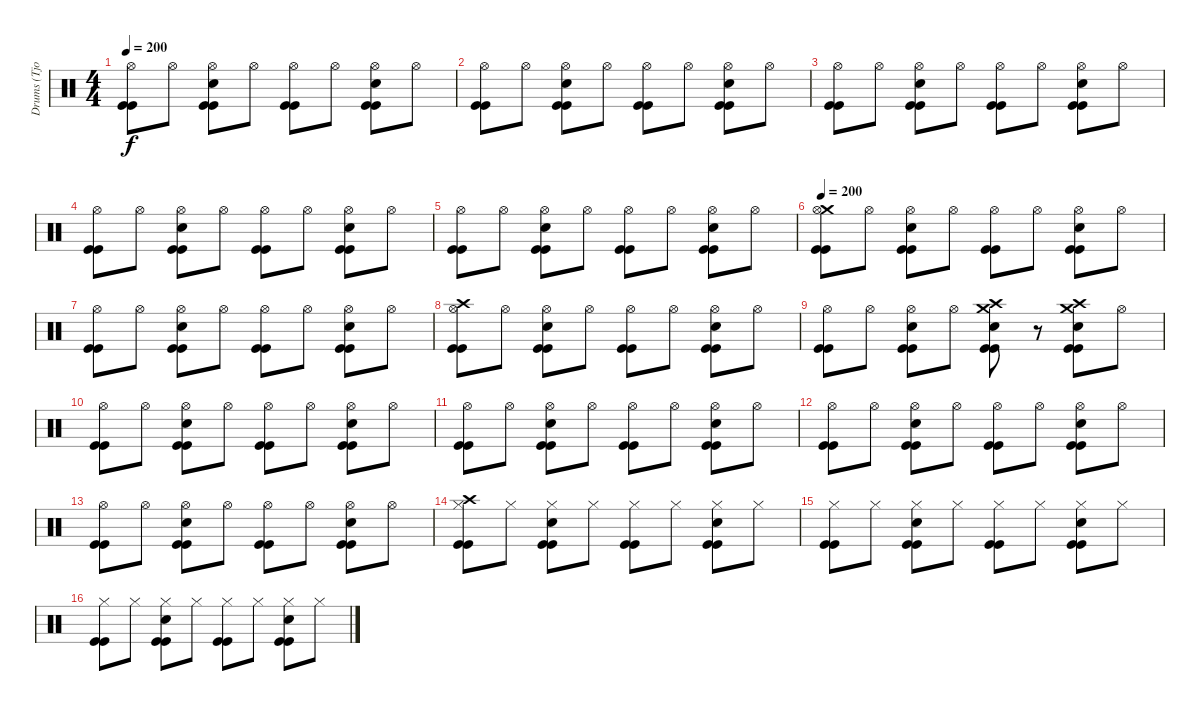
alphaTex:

\track ("Drums (Tjodalv)" "Drums (Tjo") {instrument percussion}
\staff {score}
\articulation defaults
\ts (4 4)
\tempo 200
\clef neutral
\ks c
("Hi-Hat (open)" "Kick (hit)" "Kick (hit)").8{dy f} "Hi-Hat (open)".8 ("Snare (hit) 2" "Hi-Hat (open)" "Kick (hit)" "Kick (hit)").8 "Hi-Hat (open)".8 ("Hi-Hat (open)" "Kick (hit)" "Kick (hit)").8 "Hi-Hat (open)".8 ("Snare (hit) 2" "Hi-Hat (open)" "Kick (hit)" "Kick (hit)").8 "Hi-Hat (open)".8 |
("Hi-Hat (open)" "Kick (hit)" "Kick (hit)").8 "Hi-Hat (open)".8 ("Snare (hit) 2" "Hi-Hat (open)" "Kick (hit)" "Kick (hit)").8 "Hi-Hat (open)".8 ("Hi-Hat (open)" "Kick (hit)" "Kick (hit)").8 "Hi-Hat (open)".8 ("Snare (hit) 2" "Hi-Hat (open)" "Kick (hit)" "Kick (hit)").8 "Hi-Hat (open)".8 |
("Hi-Hat (open)" "Kick (hit)" "Kick (hit)").8 "Hi-Hat (open)".8 ("Snare (hit) 2" "Hi-Hat (open)" "Kick (hit)" "Kick (hit)").8 "Hi-Hat (open)".8 ("Hi-Hat (open)" "Kick (hit)" "Kick (hit)").8 "Hi-Hat (open)".8 ("Snare (hit) 2" "Hi-Hat (open)" "Kick (hit)" "Kick (hit)").8 "Hi-Hat (open)".8 |
("Hi-Hat (open)" "Kick (hit)" "Kick (hit)").8 "Hi-Hat (open)".8 ("Snare (hit) 2" "Hi-Hat (open)" "Kick (hit)" "Kick (hit)").8 "Hi-Hat (open)".8 ("Hi-Hat (open)" "Kick (hit)" "Kick (hit)").8 "Hi-Hat (open)".8 ("Snare (hit) 2" "Hi-Hat (open)" "Kick (hit)" "Kick (hit)").8 "Hi-Hat (open)".8 |
("Hi-Hat (open)" "Kick (hit)" "Kick (hit)").8 "Hi-Hat (open)".8 ("Snare (hit) 2" "Hi-Hat (open)" "Kick (hit)" "Kick (hit)").8 "Hi-Hat (open)".8 ("Hi-Hat (open)" "Kick (hit)" "Kick (hit)").8 "Hi-Hat (open)".8 ("Snare (hit) 2" "Hi-Hat (open)" "Kick (hit)" "Kick (hit)").8 "Hi-Hat (open)".8 |
\tempo 200
("Crash medium (hit)" "Hi-Hat (open)" "Kick (hit)" "Kick (hit)").8 "Hi-Hat (open)".8 ("Snare (hit) 2" "Hi-Hat (open)" "Kick (hit)" "Kick (hit)").8 "Hi-Hat (open)".8 ("Hi-Hat (open)" "Kick (hit)" "Kick (hit)").8 "Hi-Hat (open)".8 ("Snare (hit) 2" "Hi-Hat (open)" "Kick (hit)" "Kick (hit)").8 "Hi-Hat (open)".8 |
("Hi-Hat (open)" "Kick (hit)" "Kick (hit)").8 "Hi-Hat (open)".8 ("Snare (hit) 2" "Hi-Hat (open)" "Kick (hit)" "Kick (hit)").8 "Hi-Hat (open)".8 ("Hi-Hat (open)" "Kick (hit)" "Kick (hit)").8 "Hi-Hat (open)".8 ("Snare (hit) 2" "Hi-Hat (open)" "Kick (hit)" "Kick (hit)").8 "Hi-Hat (open)".8 |
("Crash high (hit)" "Hi-Hat (open)" "Kick (hit)" "Kick (hit)").8 "Hi-Hat (open)".8 ("Snare (hit) 2" "Hi-Hat (open)" "Kick (hit)" "Kick (hit)").8 "Hi-Hat (open)".8 ("Hi-Hat (open)" "Kick (hit)" "Kick (hit)").8 "Hi-Hat (open)".8 ("Snare (hit) 2" "Hi-Hat (open)" "Kick (hit)" "Kick (hit)").8 "Hi-Hat (open)".8 |
("Hi-Hat (open)" "Kick (hit)" "Kick (hit)").8 "Hi-Hat (open)".8 ("Snare (hit) 2" "Hi-Hat (open)" "Kick (hit)" "Kick (hit)").8 "Hi-Hat (open)".8 ("Crash medium (hit)" "Crash high (hit)" "Snare (hit) 2" "Kick (hit)" "Kick (hit)").8 r.8 ("Crash medium (hit)" "Crash high (hit)" "Snare (hit) 2" "Kick (hit)" "Kick (hit)").8 "Hi-Hat (open)".8 |
("Hi-Hat (open)" "Kick (hit)" "Kick (hit)").8 "Hi-Hat (open)".8 ("Snare (hit) 2" "Hi-Hat (open)" "Kick (hit)" "Kick (hit)").8 "Hi-Hat (open)".8 ("Hi-Hat (open)" "Kick (hit)" "Kick (hit)").8 "Hi-Hat (open)".8 ("Snare (hit) 2" "Hi-Hat (open)" "Kick (hit)" "Kick (hit)").8 "Hi-Hat (open)".8 |
("Hi-Hat (open)" "Kick (hit)" "Kick (hit)").8 "Hi-Hat (open)".8 ("Snare (hit) 2" "Hi-Hat (open)" "Kick (hit)" "Kick (hit)").8 "Hi-Hat (open)".8 ("Hi-Hat (open)" "Kick (hit)" "Kick (hit)").8 "Hi-Hat (open)".8 ("Snare (hit) 2" "Hi-Hat (open)" "Kick (hit)" "Kick (hit)").8 "Hi-Hat (open)".8 |
("Hi-Hat (open)" "Kick (hit)" "Kick (hit)").8 "Hi-Hat (open)".8 ("Snare (hit) 2" "Hi-Hat (open)" "Kick (hit)" "Kick (hit)").8 "Hi-Hat (open)".8 ("Hi-Hat (open)" "Kick (hit)" "Kick (hit)").8 "Hi-Hat (open)".8 ("Snare (hit) 2" "Hi-Hat (open)" "Kick (hit)" "Kick (hit)").8 "Hi-Hat (open)".8 |
("Hi-Hat (open)" "Kick (hit)" "Kick (hit)").8 "Hi-Hat (open)".8 ("Snare (hit) 2" "Hi-Hat (open)" "Kick (hit)" "Kick (hit)").8 "Hi-Hat (open)".8 ("Hi-Hat (open)" "Kick (hit)" "Kick (hit)").8 "Hi-Hat (open)".8 ("Snare (hit) 2" "Hi-Hat (open)" "Kick (hit)" "Kick (hit)").8 "Hi-Hat (open)".8 |
("Crash high (hit)" "Hi-Hat (closed)" "Kick (hit)" "Kick (hit)").8 "Hi-Hat (closed)".8 ("Snare (hit) 2" "Hi-Hat (closed)" "Kick (hit)" "Kick (hit)").8 "Hi-Hat (closed)".8 ("Hi-Hat (closed)" "Kick (hit)" "Kick (hit)").8 "Hi-Hat (closed)".8 ("Snare (hit) 2" "Hi-Hat (closed)" "Kick (hit)" "Kick (hit)").8 "Hi-Hat (closed)".8 |
("Hi-Hat (closed)" "Kick (hit)" "Kick (hit)").8 "Hi-Hat (closed)".8 ("Snare (hit) 2" "Hi-Hat (closed)" "Kick (hit)" "Kick (hit)").8 "Hi-Hat (closed)".8 ("Hi-Hat (closed)" "Kick (hit)" "Kick (hit)").8 "Hi-Hat (closed)".8 ("Snare (hit) 2" "Hi-Hat (closed)" "Kick (hit)" "Kick (hit)").8 "Hi-Hat (closed)".8 |
("Hi-Hat (closed)" "Kick (hit)" "Kick (hit)").8 "Hi-Hat (closed)".8 ("Snare (hit) 2" "Hi-Hat (closed)" "Kick (hit)" "Kick (hit)").8 "Hi-Hat (closed)".8 ("Hi-Hat (closed)" "Kick (hit)" "Kick (hit)").8 "Hi-Hat (closed)".8 ("Snare (hit) 2" "Hi-Hat (closed)" "Kick (hit)" "Kick (hit)").8 "Hi-Hat (closed)".8
